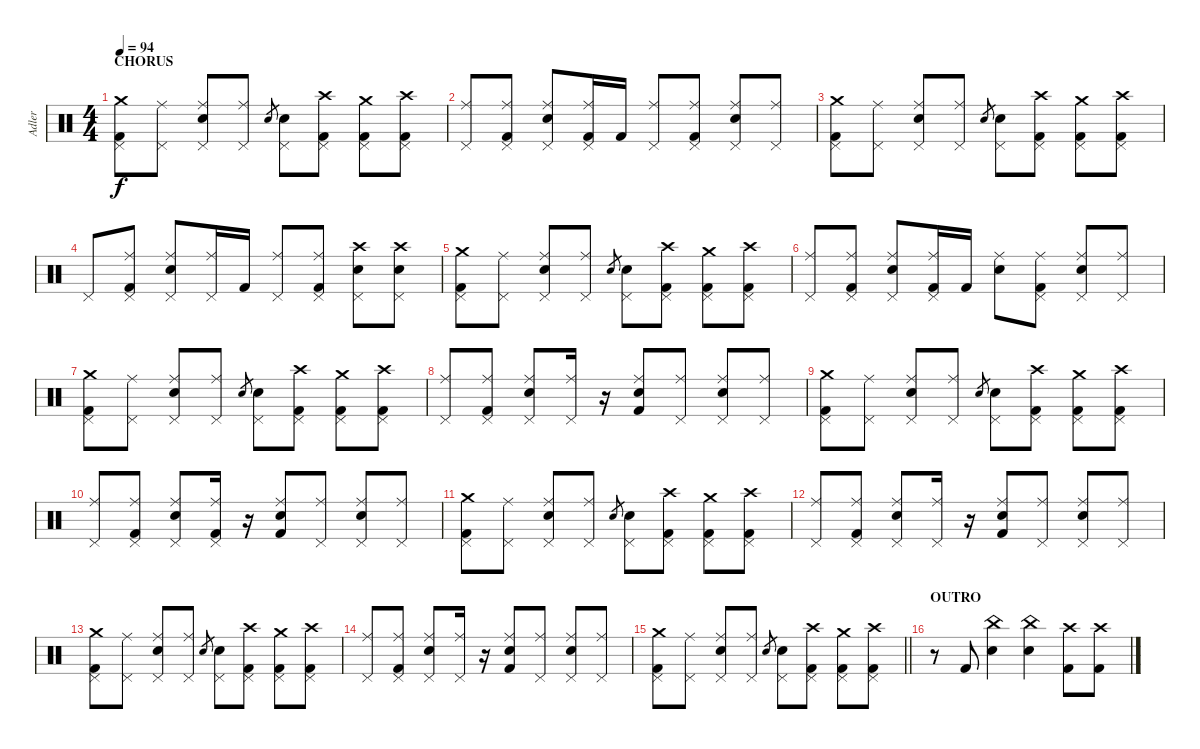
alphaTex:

\track ("Adler" "Adler") {instrument percussion}
\staff {score}
\articulation defaults
\ts (4 4)
\section ("" "CHORUS")
\tempo 94
\clef neutral
\ks c
("Crash medium (hit)" "Kick (hit) 2" "Pedal Hi-Hat (hit)").8{dy f} ("Pedal Hi-Hat (hit)" "Ride (middle)").8 ("Snare (hit) 2" "Pedal Hi-Hat (hit)" "Ride (middle)").8 ("Pedal Hi-Hat (hit)" "Ride (middle)").8 "Snare (hit) 2".8{gr} ("Snare (hit) 2" "Pedal Hi-Hat (hit)").8 ("Crash high (hit)" "Kick (hit) 2" "Pedal Hi-Hat (hit)").8 ("Crash medium (hit)" "Kick (hit) 2" "Pedal Hi-Hat (hit)").8 ("Crash high (hit)" "Kick (hit) 2" "Pedal Hi-Hat (hit)").8 |
("Pedal Hi-Hat (hit)" "Ride (middle)").8 ("Kick (hit) 2" "Pedal Hi-Hat (hit)" "Ride (middle)").8 ("Snare (hit) 2" "Pedal Hi-Hat (hit)" "Ride (middle)").8 ("Kick (hit) 2" "Pedal Hi-Hat (hit)" "Ride (middle)").16 "Kick (hit) 2".16 ("Pedal Hi-Hat (hit)" "Ride (middle)").8 ("Kick (hit) 2" "Pedal Hi-Hat (hit)" "Ride (middle)").8 ("Snare (hit) 2" "Pedal Hi-Hat (hit)" "Ride (middle)").8 ("Pedal Hi-Hat (hit)" "Ride (middle)").8 |
("Crash medium (hit)" "Kick (hit) 2" "Pedal Hi-Hat (hit)").8 ("Pedal Hi-Hat (hit)" "Ride (middle)").8 ("Snare (hit) 2" "Pedal Hi-Hat (hit)" "Ride (middle)").8 ("Pedal Hi-Hat (hit)" "Ride (middle)").8 "Snare (hit) 2".8{gr} ("Snare (hit) 2" "Pedal Hi-Hat (hit)").8 ("Crash high (hit)" "Kick (hit) 2" "Pedal Hi-Hat (hit)").8 ("Crash medium (hit)" "Kick (hit) 2" "Pedal Hi-Hat (hit)").8 ("Crash high (hit)" "Kick (hit) 2" "Pedal Hi-Hat (hit)").8 |
"Pedal Hi-Hat (hit)".8 ("Kick (hit) 2" "Pedal Hi-Hat (hit)" "Ride (middle)").8 ("Snare (hit) 2" "Pedal Hi-Hat (hit)" "Ride (middle)").8 ("Pedal Hi-Hat (hit)" "Ride (middle)").16 "Kick (hit) 2".16 ("Pedal Hi-Hat (hit)" "Ride (middle)").8 ("Kick (hit) 2" "Pedal Hi-Hat (hit)" "Ride (middle)").8 ("Crash high (hit)" "Snare (hit) 2" "Pedal Hi-Hat (hit)").8 ("Crash high (hit)" "Snare (hit) 2" "Pedal Hi-Hat (hit)").8 |
("Crash medium (hit)" "Kick (hit) 2" "Pedal Hi-Hat (hit)").8 ("Pedal Hi-Hat (hit)" "Ride (middle)").8 ("Snare (hit) 2" "Pedal Hi-Hat (hit)" "Ride (middle)").8 ("Pedal Hi-Hat (hit)" "Ride (middle)").8 "Snare (hit) 2".8{gr} ("Snare (hit) 2" "Pedal Hi-Hat (hit)").8 ("Crash high (hit)" "Kick (hit) 2" "Pedal Hi-Hat (hit)").8 ("Crash medium (hit)" "Kick (hit) 2" "Pedal Hi-Hat (hit)").8 ("Crash high (hit)" "Kick (hit) 2" "Pedal Hi-Hat (hit)").8 |
("Pedal Hi-Hat (hit)" "Ride (middle)").8 ("Kick (hit) 2" "Pedal Hi-Hat (hit)" "Ride (middle)").8 ("Snare (hit) 2" "Pedal Hi-Hat (hit)" "Ride (middle)").8 ("Kick (hit) 2" "Pedal Hi-Hat (hit)" "Ride (middle)").16 "Kick (hit) 2".16 ("Snare (hit)" "Ride (middle)").8 ("Kick (hit) 2" "Pedal Hi-Hat (hit)" "Ride (middle)").8 ("Snare (hit) 2" "Pedal Hi-Hat (hit)" "Ride (middle)").8 ("Pedal Hi-Hat (hit)" "Ride (middle)").8 |
("Crash medium (hit)" "Kick (hit) 2" "Pedal Hi-Hat (hit)").8 ("Pedal Hi-Hat (hit)" "Ride (middle)").8 ("Snare (hit) 2" "Pedal Hi-Hat (hit)" "Ride (middle)").8 ("Pedal Hi-Hat (hit)" "Ride (middle)").8 "Snare (hit) 2".8{gr} ("Snare (hit) 2" "Pedal Hi-Hat (hit)").8 ("Crash high (hit)" "Kick (hit) 2" "Pedal Hi-Hat (hit)").8 ("Crash medium (hit)" "Kick (hit) 2" "Pedal Hi-Hat (hit)").8 ("Crash high (hit)" "Kick (hit) 2" "Pedal Hi-Hat (hit)").8 |
("Pedal Hi-Hat (hit)" "Ride (middle)").8 ("Kick (hit) 2" "Pedal Hi-Hat (hit)" "Ride (middle)").8 ("Snare (hit) 2" "Pedal Hi-Hat (hit)" "Ride (middle)").8 ("Pedal Hi-Hat (hit)" "Ride (middle)").16 r.16 ("Kick (hit) 2" "Snare (hit)" "Ride (middle)").8 ("Pedal Hi-Hat (hit)" "Ride (middle)").8 ("Snare (hit) 2" "Pedal Hi-Hat (hit)" "Ride (middle)").8 ("Pedal Hi-Hat (hit)" "Ride (middle)").8 |
("Crash medium (hit)" "Kick (hit) 2" "Pedal Hi-Hat (hit)").8 ("Pedal Hi-Hat (hit)" "Ride (middle)").8 ("Snare (hit) 2" "Pedal Hi-Hat (hit)" "Ride (middle)").8 ("Pedal Hi-Hat (hit)" "Ride (middle)").8 "Snare (hit) 2".8{gr} ("Snare (hit) 2" "Pedal Hi-Hat (hit)").8 ("Crash high (hit)" "Kick (hit) 2" "Pedal Hi-Hat (hit)").8 ("Crash medium (hit)" "Kick (hit) 2" "Pedal Hi-Hat (hit)").8 ("Crash high (hit)" "Kick (hit) 2" "Pedal Hi-Hat (hit)").8 |
("Pedal Hi-Hat (hit)" "Ride (middle)").8 ("Kick (hit) 2" "Pedal Hi-Hat (hit)" "Ride (middle)").8 ("Snare (hit) 2" "Pedal Hi-Hat (hit)" "Ride (middle)").8 ("Kick (hit) 2" "Pedal Hi-Hat (hit)" "Ride (middle)").16 r.16 ("Kick (hit) 2" "Snare (hit)" "Ride (middle)").8 ("Pedal Hi-Hat (hit)" "Ride (middle)").8 ("Snare (hit) 2" "Pedal Hi-Hat (hit)" "Ride (middle)").8 ("Pedal Hi-Hat (hit)" "Ride (middle)").8 |
("Crash medium (hit)" "Kick (hit) 2" "Pedal Hi-Hat (hit)").8 ("Pedal Hi-Hat (hit)" "Ride (middle)").8 ("Snare (hit) 2" "Pedal Hi-Hat (hit)" "Ride (middle)").8 ("Pedal Hi-Hat (hit)" "Ride (middle)").8 "Snare (hit) 2".8{gr} ("Snare (hit) 2" "Pedal Hi-Hat (hit)").8 ("Crash high (hit)" "Kick (hit) 2" "Pedal Hi-Hat (hit)").8 ("Crash medium (hit)" "Kick (hit) 2" "Pedal Hi-Hat (hit)").8 ("Crash high (hit)" "Kick (hit) 2" "Pedal Hi-Hat (hit)").8 |
("Pedal Hi-Hat (hit)" "Ride (middle)").8 ("Kick (hit) 2" "Pedal Hi-Hat (hit)" "Ride (middle)").8 ("Snare (hit) 2" "Pedal Hi-Hat (hit)" "Ride (middle)").8 ("Pedal Hi-Hat (hit)" "Ride (middle)").16 r.16 ("Kick (hit) 2" "Snare (hit)" "Ride (middle)").8 ("Pedal Hi-Hat (hit)" "Ride (middle)").8 ("Snare (hit) 2" "Pedal Hi-Hat (hit)" "Ride (middle)").8 ("Pedal Hi-Hat (hit)" "Ride (middle)").8 |
("Crash medium (hit)" "Kick (hit) 2" "Pedal Hi-Hat (hit)").8 ("Pedal Hi-Hat (hit)" "Ride (middle)").8 ("Snare (hit) 2" "Pedal Hi-Hat (hit)" "Ride (middle)").8 ("Pedal Hi-Hat (hit)" "Ride (middle)").8 "Snare (hit) 2".8{gr} ("Snare (hit) 2" "Pedal Hi-Hat (hit)").8 ("Crash high (hit)" "Kick (hit) 2" "Pedal Hi-Hat (hit)").8 ("Crash medium (hit)" "Kick (hit) 2" "Pedal Hi-Hat (hit)").8 ("Crash high (hit)" "Kick (hit) 2" "Pedal Hi-Hat (hit)").8 |
("Pedal Hi-Hat (hit)" "Ride (middle)").8 ("Kick (hit) 2" "Pedal Hi-Hat (hit)" "Ride (middle)").8 ("Snare (hit) 2" "Pedal Hi-Hat (hit)" "Ride (middle)").8 ("Pedal Hi-Hat (hit)" "Ride (middle)").16 r.16 ("Kick (hit) 2" "Snare (hit)" "Ride (middle)").8 ("Pedal Hi-Hat (hit)" "Ride (middle)").8 ("Snare (hit) 2" "Pedal Hi-Hat (hit)" "Ride (middle)").8 ("Pedal Hi-Hat (hit)" "Ride (middle)").8 |
\barLineRight lightlight
("Crash medium (hit)" "Kick (hit) 2" "Pedal Hi-Hat (hit)").8 ("Pedal Hi-Hat (hit)" "Ride (middle)").8 ("Snare (hit) 2" "Pedal Hi-Hat (hit)" "Ride (middle)").8 ("Pedal Hi-Hat (hit)" "Ride (middle)").8 "Snare (hit) 2".8{gr} ("Snare (hit) 2" "Pedal Hi-Hat (hit)").8 ("Crash high (hit)" "Kick (hit) 2" "Pedal Hi-Hat (hit)").8 ("Crash medium (hit)" "Kick (hit) 2" "Pedal Hi-Hat (hit)").8 ("Crash high (hit)" "Kick (hit) 2" "Pedal Hi-Hat (hit)").8 |
\section ("" "OUTRO")
r.8 "Kick (hit) 2".8 ("China (hit)" "Snare (hit) 2").4 ("China (hit)" "Snare (hit) 2").4 ("Kick (hit) 2" "Crash high (hit)").8 ("Kick (hit) 2" "Crash high (hit)").8
